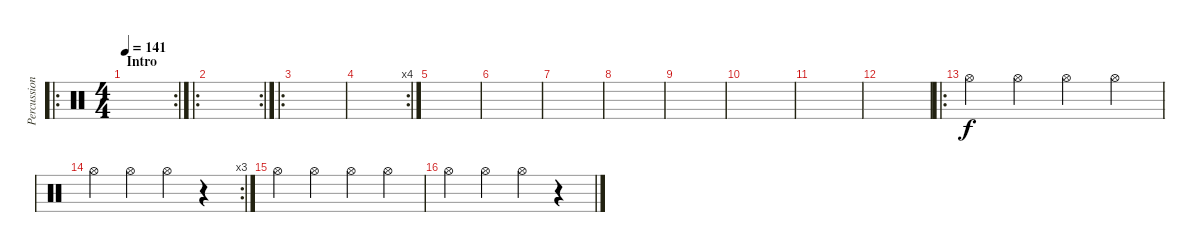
\track ("Percussion" "Percussion") {instrument percussion}
\staff {score}
\articulation defaults
\ro
\rc 2
\ts (4 4)
\section ("" "Intro")
\tempo 141
\clef neutral
\ks c
|
\ro
\rc 2
|
\ro
|
\rc 4
|
|
|
|
|
|
|
|
|
\ro "Hi-Hat (open)".4 "Hi-Hat (open)".4 "Hi-Hat (open)".4 "Hi-Hat (open)".4
|
\rc 3 "Hi-Hat (open)".4 "Hi-Hat (open)".4 "Hi-Hat (open)".4
r.4 |
"Hi-Hat (open)".4 "Hi-Hat (open)".4 "Hi-Hat (open)".4 "Hi-Hat (open)".4 |
"Hi-Hat (open)".4 "Hi-Hat (open)".4 "Hi-Hat (open)".4 r.4
